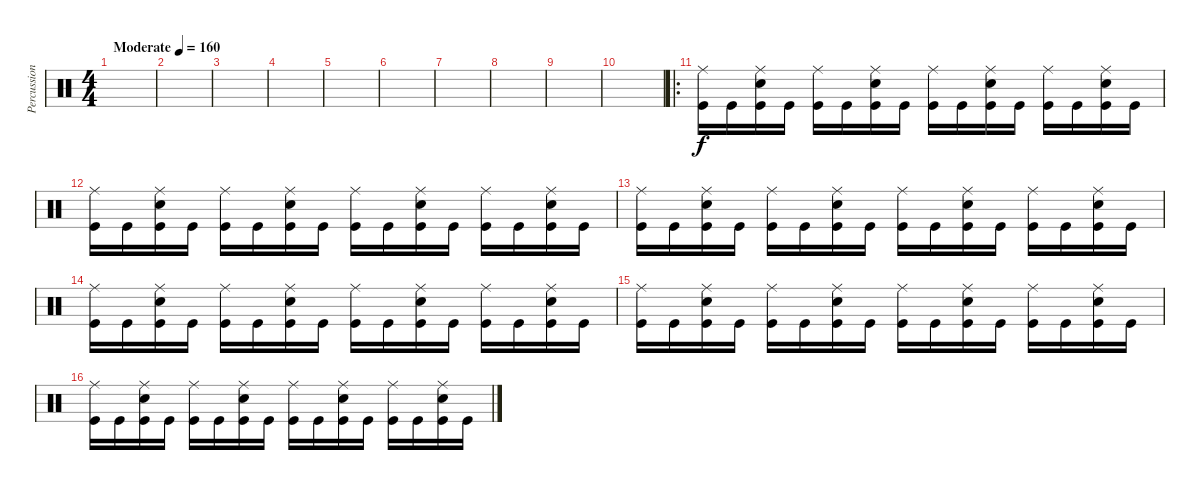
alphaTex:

\track ("Percussion" "Percussion") {instrument percussion}
\staff {score}
\articulation defaults
\ts (4 4)
\tempo (160 "Moderate")
\clef neutral
\ks c
|
|
|
|
|
|
|
|
|
|
\ro
("Ride (middle)" "Kick (hit)").16 "Kick (hit)".16 ("Ride (middle)" "Snare (hit) 2" "Kick (hit)").16 "Kick (hit)".16 ("Ride (middle)" "Kick (hit)").16 "Kick (hit)".16 ("Ride (middle)" "Snare (hit) 2" "Kick (hit)").16 "Kick (hit)".16 ("Ride (middle)" "Kick (hit)").16 "Kick (hit)".16 ("Ride (middle)" "Snare (hit) 2" "Kick (hit)").16 "Kick (hit)".16 ("Ride (middle)" "Kick (hit)").16 "Kick (hit)".16 ("Ride (middle)" "Snare (hit) 2" "Kick (hit)").16 "Kick (hit)".16 |
("Ride (middle)" "Kick (hit)").16 "Kick (hit)".16 ("Ride (middle)" "Snare (hit) 2" "Kick (hit)").16 "Kick (hit)".16 ("Ride (middle)" "Kick (hit)").16 "Kick (hit)".16 ("Ride (middle)" "Snare (hit) 2" "Kick (hit)").16 "Kick (hit)".16 ("Ride (middle)" "Kick (hit)").16 "Kick (hit)".16 ("Ride (middle)" "Snare (hit) 2" "Kick (hit)").16 "Kick (hit)".16 ("Ride (middle)" "Kick (hit)").16 "Kick (hit)".16 ("Ride (middle)" "Snare (hit) 2" "Kick (hit)").16 "Kick (hit)".16 |
("Ride (middle)" "Kick (hit)").16 "Kick (hit)".16 ("Ride (middle)" "Snare (hit) 2" "Kick (hit)").16 "Kick (hit)".16 ("Ride (middle)" "Kick (hit)").16 "Kick (hit)".16 ("Ride (middle)" "Snare (hit) 2" "Kick (hit)").16 "Kick (hit)".16 ("Ride (middle)" "Kick (hit)").16 "Kick (hit)".16 ("Ride (middle)" "Snare (hit) 2" "Kick (hit)").16 "Kick (hit)".16 ("Ride (middle)" "Kick (hit)").16 "Kick (hit)".16 ("Ride (middle)" "Snare (hit) 2" "Kick (hit)").16 "Kick (hit)".16 |
("Ride (middle)" "Kick (hit)").16 "Kick (hit)".16 ("Ride (middle)" "Snare (hit) 2" "Kick (hit)").16 "Kick (hit)".16 ("Ride (middle)" "Kick (hit)").16 "Kick (hit)".16 ("Ride (middle)" "Snare (hit) 2" "Kick (hit)").16 "Kick (hit)".16 ("Ride (middle)" "Kick (hit)").16 "Kick (hit)".16 ("Ride (middle)" "Snare (hit) 2" "Kick (hit)").16 "Kick (hit)".16 ("Ride (middle)" "Kick (hit)").16 "Kick (hit)".16 ("Ride (middle)" "Snare (hit) 2" "Kick (hit)").16 "Kick (hit)".16 |
("Ride (middle)" "Kick (hit)").16 "Kick (hit)".16 ("Ride (middle)" "Snare (hit) 2" "Kick (hit)").16 "Kick (hit)".16 ("Ride (middle)" "Kick (hit)").16 "Kick (hit)".16 ("Ride (middle)" "Snare (hit) 2" "Kick (hit)").16 "Kick (hit)".16 ("Ride (middle)" "Kick (hit)").16 "Kick (hit)".16 ("Ride (middle)" "Snare (hit) 2" "Kick (hit)").16 "Kick (hit)".16 ("Ride (middle)" "Kick (hit)").16 "Kick (hit)".16 ("Ride (middle)" "Snare (hit) 2" "Kick (hit)").16 "Kick (hit)".16 |
("Ride (middle)" "Kick (hit)").16 "Kick (hit)".16 ("Ride (middle)" "Snare (hit) 2" "Kick (hit)").16 "Kick (hit)".16 ("Ride (middle)" "Kick (hit)").16 "Kick (hit)".16 ("Ride (middle)" "Snare (hit) 2" "Kick (hit)").16 "Kick (hit)".16 ("Ride (middle)" "Kick (hit)").16 "Kick (hit)".16 ("Ride (middle)" "Snare (hit) 2" "Kick (hit)").16 "Kick (hit)".16 ("Ride (middle)" "Kick (hit)").16 "Kick (hit)".16 ("Ride (middle)" "Snare (hit) 2" "Kick (hit)").16 "Kick (hit)".16
